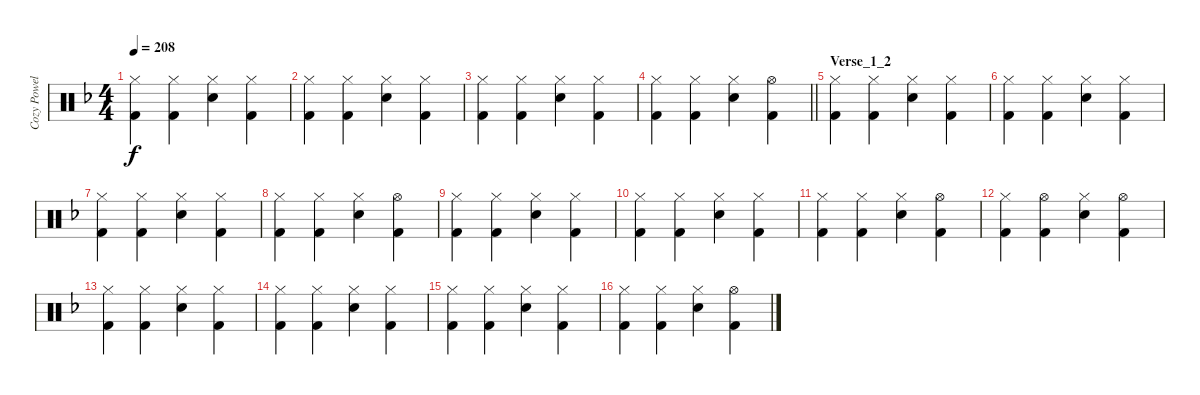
\track ("Cozy Powell" "Cozy Powel") {instrument percussion}
\staff {score}
\articulation defaults
\ts (4 4)
\tempo 208
\clef neutral
\ks f
("Hi-Hat (closed)" "Kick (hit) 2").4{dy f} ("Hi-Hat (closed)" "Kick (hit) 2").4 ("Hi-Hat (closed)" "Snare (hit) 2").4 ("Hi-Hat (closed)" "Kick (hit) 2").4 |
("Hi-Hat (closed)" "Kick (hit) 2").4 ("Hi-Hat (closed)" "Kick (hit) 2").4 ("Hi-Hat (closed)" "Snare (hit) 2").4 ("Hi-Hat (closed)" "Kick (hit) 2").4 |
("Hi-Hat (closed)" "Kick (hit) 2").4 ("Hi-Hat (closed)" "Kick (hit) 2").4 ("Hi-Hat (closed)" "Snare (hit) 2").4 ("Hi-Hat (closed)" "Kick (hit) 2").4 |
\barLineRight lightlight
("Hi-Hat (closed)" "Kick (hit) 2").4 ("Hi-Hat (closed)" "Kick (hit) 2").4 ("Hi-Hat (closed)" "Snare (hit) 2").4 ("Hi-Hat (open)" "Kick (hit) 2").4 |
\section ("" "Verse_1_2")
("Hi-Hat (closed)" "Kick (hit) 2").4 ("Hi-Hat (closed)" "Kick (hit) 2").4 ("Hi-Hat (closed)" "Snare (hit) 2").4 ("Hi-Hat (closed)" "Kick (hit) 2").4 |
("Hi-Hat (closed)" "Kick (hit) 2").4 ("Hi-Hat (closed)" "Kick (hit) 2").4 ("Hi-Hat (closed)" "Snare (hit) 2").4 ("Hi-Hat (closed)" "Kick (hit) 2").4 |
("Hi-Hat (closed)" "Kick (hit) 2").4 ("Hi-Hat (closed)" "Kick (hit) 2").4 ("Hi-Hat (closed)" "Snare (hit) 2").4 ("Hi-Hat (closed)" "Kick (hit) 2").4 |
("Hi-Hat (closed)" "Kick (hit) 2").4 ("Hi-Hat (closed)" "Kick (hit) 2").4 ("Hi-Hat (closed)" "Snare (hit) 2").4 ("Hi-Hat (open)" "Kick (hit) 2").4 |
("Hi-Hat (closed)" "Kick (hit) 2").4 ("Hi-Hat (closed)" "Kick (hit) 2").4 ("Hi-Hat (closed)" "Snare (hit) 2").4 ("Hi-Hat (closed)" "Kick (hit) 2").4 |
("Hi-Hat (closed)" "Kick (hit) 2").4 ("Hi-Hat (closed)" "Kick (hit) 2").4 ("Hi-Hat (closed)" "Snare (hit) 2").4 ("Hi-Hat (closed)" "Kick (hit) 2").4 |
("Hi-Hat (closed)" "Kick (hit) 2").4 ("Hi-Hat (closed)" "Kick (hit) 2").4 ("Hi-Hat (closed)" "Snare (hit) 2").4 ("Hi-Hat (open)" "Kick (hit) 2").4 |
("Hi-Hat (closed)" "Kick (hit) 2").4 ("Hi-Hat (open)" "Kick (hit) 2").4 ("Hi-Hat (closed)" "Snare (hit) 2").4 ("Hi-Hat (open)" "Kick (hit) 2").4 |
("Hi-Hat (closed)" "Kick (hit) 2").4 ("Hi-Hat (closed)" "Kick (hit) 2").4 ("Hi-Hat (closed)" "Snare (hit) 2").4 ("Hi-Hat (closed)" "Kick (hit) 2").4 |
("Hi-Hat (closed)" "Kick (hit) 2").4 ("Hi-Hat (closed)" "Kick (hit) 2").4 ("Hi-Hat (closed)" "Snare (hit) 2").4 ("Hi-Hat (closed)" "Kick (hit) 2").4 |
("Hi-Hat (closed)" "Kick (hit) 2").4 ("Hi-Hat (closed)" "Kick (hit) 2").4 ("Hi-Hat (closed)" "Snare (hit) 2").4 ("Hi-Hat (closed)" "Kick (hit) 2").4 |
("Hi-Hat (closed)" "Kick (hit) 2").4 ("Hi-Hat (closed)" "Kick (hit) 2").4 ("Hi-Hat (closed)" "Snare (hit) 2").4 ("Hi-Hat (open)" "Kick (hit) 2").4
